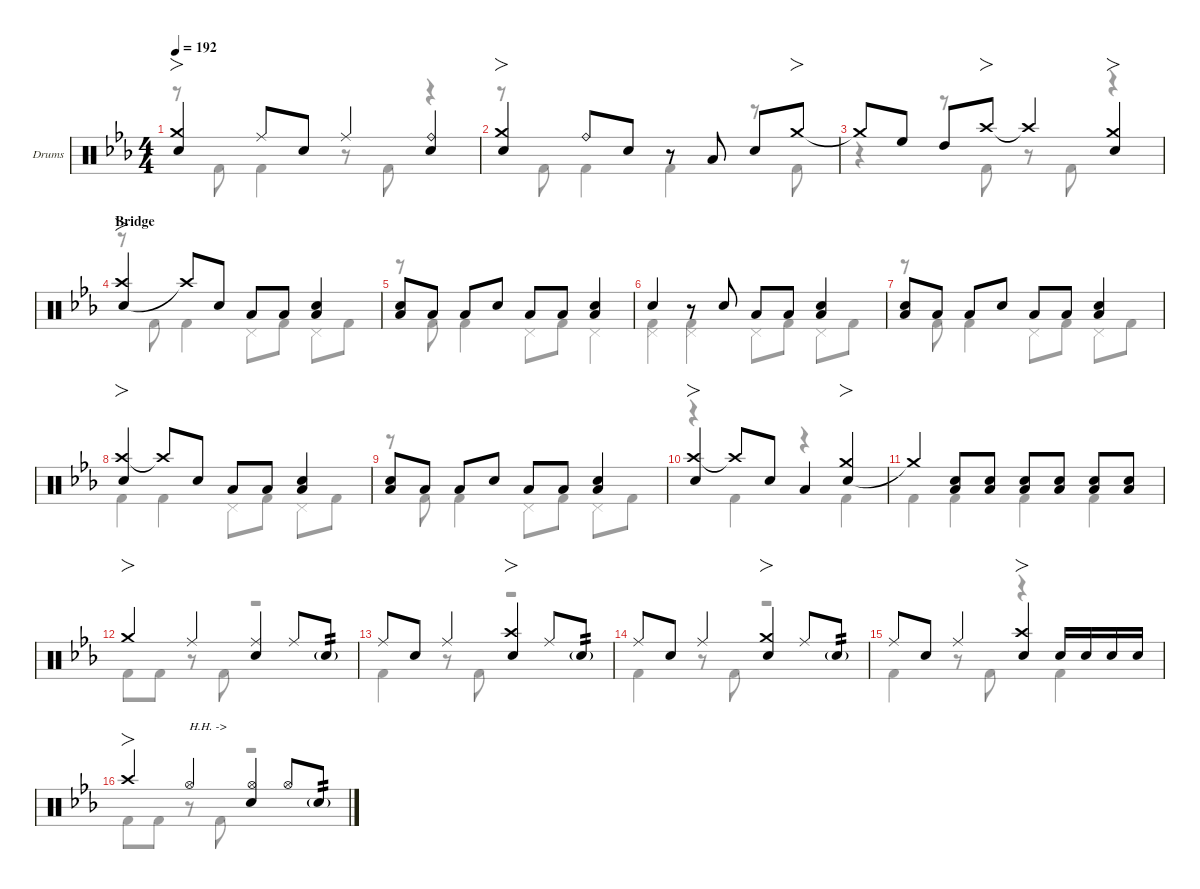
\defaultSystemsLayout 4
\hideDynamics
\bracketExtendMode nobrackets
\firstSystemTrackNameOrientation horizontal
\track ("Drums" "Drums") {defaultSystemsLayout 4 instrument percussion}
\staff {score}
\articulation defaults
\voice
\ts (4 4)
\tempo 192
\clef neutral
\scale
0.244132
\ks eb
("Crash medium (hit)"{acc forcenatural} "Snare (hit) 2"{acc forcenatural}).4{fo dy f beam Up} "Ride (middle)"{acc forcenatural}.8{dy mf beam Up} "Snare (hit) 2"{acc forcenatural}.8{dy f beam Up} "Ride (middle)"{acc forcenatural}.4{beam Up} ("Ride (bell)"{acc forcenatural} "Snare (hit) 2"{acc forcenatural}).4{beam Up} |
\scale
0.240816 ("Crash medium (hit)"{acc forcenatural} "Snare (hit) 2"{acc forcenatural}).4{fo beam Up} "Ride (bell)"{acc forcenatural}.8{beam Up} "Snare (hit) 2"{acc forcenatural}.8{beam Up} r.8{beam Up} "Low Tom (hit)"{acc forcenatural}.8{beam Up} "Snare (hit) 2"{acc forcenatural}.8{beam Up} "Crash medium (hit)"{acc forcenatural}.8{fo beam Up} |
\scale
0.247447 "Crash medium (hit)"{t acc forcenatural}.8{beam Up} "High Floor Tom (hit)"{acc forcenatural}.8{beam Up} "High Tom (hit)"{acc forcenatural}.8{beam Up} "Crash high (hit)"{acc forcenatural}.8{fo beam Up} "Crash high (hit)"{t acc forcenatural}.4{beam Up} ("Snare (hit) 2"{acc forcenatural} "Crash medium (hit)"{acc forcenatural}).4{fo beam Up} |
\section ("" "Bridge")
\scale
0.270437 ("Snare (hit) 2"{acc forcenatural} "Crash high (hit)"{acc forcenatural}).4{fo beam Up} "Crash high (hit)"{t acc forcenatural}.8{beam Up} "Snare (hit) 2"{acc forcenatural}.8{beam Up} "Low Tom (hit)"{acc forcenatural}.8{beam Up} "Low Tom (hit)"{acc forcenatural}.8{beam Up} ("Snare (hit) 2"{acc forcenatural} "Low Tom (hit)"{acc forcenatural}).4{beam Up} |
\scale
0.2413 ("Low Tom (hit)"{acc forcenatural} "Snare (hit) 2"{acc forcenatural}).8{beam Up} "Low Tom (hit)"{acc forcenatural}.8{beam Up} "Low Tom (hit)"{acc forcenatural}.8{beam Up} "Snare (hit) 2"{acc forcenatural}.8{beam Up} "Low Tom (hit)"{acc forcenatural}.8{beam Up} "Low Tom (hit)"{acc forcenatural}.8{beam Up} ("Low Tom (hit)"{acc forcenatural} "Snare (hit) 2"{acc forcenatural}).4{beam Up} |
\scale
0.240816 "Snare (hit) 2"{acc forcenatural}.4{beam Up} r.8{beam Up} "Snare (hit) 2"{acc forcenatural}.8{beam Up} "Low Tom (hit)"{acc forcenatural}.8{beam Up} "Low Tom (hit)"{acc forcenatural}.8{beam Up} ("Snare (hit) 2"{acc forcenatural} "Low Tom (hit)"{acc forcenatural}).4{beam Up} |
\scale
0.247447 ("Snare (hit) 2"{acc forcenatural} "Low Tom (hit)"{acc forcenatural}).8{beam Up} "Low Tom (hit)"{acc forcenatural}.8{beam Up} "Low Tom (hit)"{acc forcenatural}.8{beam Up} "Snare (hit) 2"{acc forcenatural}.8{beam Up} "Low Tom (hit)"{acc forcenatural}.8{beam Up} "Low Tom (hit)"{acc forcenatural}.8{beam Up} ("Low Tom (hit)"{acc forcenatural} "Snare (hit) 2"{acc forcenatural}).4{beam Up} |
\scale
0.270437 ("Crash high (hit)"{acc forcenatural} "Snare (hit) 2"{acc forcenatural}).4{fo beam Up} "Crash high (hit)"{t acc forcenatural}.8{beam Up} "Snare (hit) 2"{acc forcenatural}.8{beam Up} "Low Tom (hit)"{acc forcenatural}.8{beam Up} "Low Tom (hit)"{acc forcenatural}.8{beam Up} ("Low Tom (hit)"{acc forcenatural} "Snare (hit) 2"{acc forcenatural}).4{beam Up} |
\scale
0.2413 ("Low Tom (hit)"{acc forcenatural} "Snare (hit) 2"{acc forcenatural}).8{beam Up} "Low Tom (hit)"{acc forcenatural}.8{beam Up} "Low Tom (hit)"{acc forcenatural}.8{beam Up} "Snare (hit) 2"{acc forcenatural}.8{beam Up} "Low Tom (hit)"{acc forcenatural}.8{beam Up} "Low Tom (hit)"{acc forcenatural}.8{beam Up} ("Low Tom (hit)"{acc forcenatural} "Snare (hit) 2"{acc forcenatural}).4{beam Up} |
\scale
0.240816 ("Crash high (hit)"{acc forcenatural} "Snare (hit) 2"{acc forcenatural}).4{fo beam Up} "Crash high (hit)"{t acc forcenatural}.8{beam Up} "Snare (hit) 2"{acc forcenatural}.8{beam Up} "Low Tom (hit)"{acc forcenatural}.4{beam Up} ("Snare (hit) 2"{acc forcenatural} "Crash medium (hit)"{acc forcenatural}).4{fo beam Up} |
\scale
0.247447 "Crash medium (hit)"{t acc forcenatural}.4{beam Up} ("Snare (hit) 2"{acc forcenatural} "Low Tom (hit)"{acc forcenatural}).8{beam Up} ("Snare (hit) 2"{acc forcenatural} "Low Tom (hit)"{acc forcenatural}).8{beam Up} ("Snare (hit) 2"{acc forcenatural} "Low Tom (hit)"{acc forcenatural}).8{beam Up} ("Snare (hit) 2"{acc forcenatural} "Low Tom (hit)"{acc forcenatural}).8{beam Up} ("Snare (hit) 2"{acc forcenatural} "Low Tom (hit)"{acc forcenatural}).8{beam Up} ("Snare (hit) 2"{acc forcenatural} "Low Tom (hit)"{acc forcenatural}).8{beam Up} |
\scale
0.270437 "Crash medium (hit)"{acc forcenatural}.4{fo beam Up} "Ride (middle)"{acc forcenatural}.4{beam Up} ("Ride (middle)"{acc forcenatural} "Snare (hit) 2"{acc forcenatural}).4{beam Up} "Ride (middle)"{acc forcenatural}.8{beam Up} "Snare (hit) 2"{g acc forcenatural}.8{tp 2 dy mp beam Up} |
\scale
0.2413 "Ride (middle)"{acc forcenatural}.8{dy f beam Up} "Snare (hit) 2"{acc forcenatural}.8{beam Up} "Ride (middle)"{acc forcenatural}.4{beam Up} ("Crash high (hit)"{acc forcenatural} "Snare (hit) 2"{acc forcenatural}).4{fo beam Up} "Ride (middle)"{acc forcenatural}.8{beam Up} "Snare (hit) 2"{g acc forcenatural}.8{tp 2 dy mp beam Up} |
\scale
0.240816 "Ride (middle)"{acc forcenatural}.8{dy f beam Up} "Snare (hit) 2"{acc forcenatural}.8{beam Up} "Ride (middle)"{acc forcenatural}.4{beam Up} ("Crash medium (hit)"{acc forcenatural} "Snare (hit) 2"{acc forcenatural}).4{fo beam Up} "Ride (middle)"{acc forcenatural}.8{beam Up} "Snare (hit) 2"{g acc forcenatural}.8{tp 2 dy mp beam Up} |
\scale
0.247447 "Ride (middle)"{acc forcenatural}.8{dy f beam Up} "Snare (hit) 2"{acc forcenatural}.8{beam Up} "Ride (middle)"{acc forcenatural}.4{beam Up} ("Crash high (hit)"{acc forcenatural} "Snare (hit) 2"{acc forcenatural}).4{fo beam Up} "Snare (hit) 2"{acc forcenatural}.16{beam Up} "Snare (hit) 2"{acc forcenatural}.16{dy mf beam Up} "Snare (hit) 2"{acc forcenatural}.16{dy f beam Up} "Snare (hit) 2"{acc forcenatural}.16{dy mf beam Up} |
\scale
0.270437 "Crash high (hit)"{acc forcenatural}.4{fo dy f beam Up} "Hi-Hat (open)"{acc forcenatural}.4{txt "H.H. ->" beam Up} ("Hi-Hat (open)"{acc forcenatural} "Snare (hit) 2"{acc forcenatural}).4{beam Up} "Hi-Hat (open)"{acc forcenatural}.8{beam Up} "Snare (hit) 2"{g acc forcenatural}.8{tp 2 dy mp beam Up}
\voice
\clef neutral
\ottava regular
\simile none
\scale
0.244132
\ks eb
r.8{dy f beam Down} "Kick (hit) 2"{acc forcenatural}.8{beam Down} "Kick (hit) 2"{acc forcenatural}.4{beam Down} r.8{beam Down} "Kick (hit) 2"{acc forcenatural}.8{beam Down} r.4{beam Down} |
\scale
0.240816 r.8{beam Down} "Kick (hit) 2"{acc forcenatural}.8{beam Down} "Kick (hit) 2"{acc forcenatural}.4{beam Down} "Kick (hit) 2"{acc forcenatural}.4{beam Down} r.8{beam Down} "Kick (hit) 2"{acc forcenatural}.8{beam Down} |
\scale
0.247447 r.4{beam Down} r.8{beam Down} "Kick (hit) 2"{acc forcenatural}.8{beam Down} r.8{beam Down} "Kick (hit) 2"{acc forcenatural}.8{beam Down} r.4{beam Down} |
\scale
0.270437 r.8{beam Down} "Kick (hit) 2"{acc forcenatural}.8{beam Down} "Kick (hit) 2"{acc forcenatural}.4{beam Down} "Pedal Hi-Hat (hit)"{acc forcenatural}.8{beam Down} "Kick (hit) 2"{acc forcenatural}.8{beam Down} "Pedal Hi-Hat (hit)"{acc forcenatural}.8{beam Down} "Kick (hit) 2"{acc forcenatural}.8{beam Down} |
\scale
0.2413 r.8{beam Down} "Kick (hit) 2"{acc forcenatural}.8{beam Down} "Kick (hit) 2"{acc forcenatural}.4{beam Down} "Pedal Hi-Hat (hit)"{acc forcenatural}.8{beam Down} "Kick (hit) 2"{acc forcenatural}.8{beam Down} "Pedal Hi-Hat (hit)"{acc forcenatural}.4{beam Down} |
\scale
0.240816 ("Kick (hit) 2"{acc forcenatural} "Pedal Hi-Hat (hit)"{acc forcenatural}).4{beam Down} ("Kick (hit) 2"{acc forcenatural} "Pedal Hi-Hat (hit)"{acc forcenatural}).4{beam Down} "Pedal Hi-Hat (hit)"{acc forcenatural}.8{beam Down} "Kick (hit) 2"{acc forcenatural}.8{beam Down} "Pedal Hi-Hat (hit)"{acc forcenatural}.8{beam Down} "Kick (hit) 2"{acc forcenatural}.8{beam Down} |
\scale
0.247447 r.8{beam Down} "Kick (hit) 2"{acc forcenatural}.8{beam Down} "Kick (hit) 2"{acc forcenatural}.4{beam Down} "Pedal Hi-Hat (hit)"{acc forcenatural}.8{beam Down} "Kick (hit) 2"{acc forcenatural}.8{beam Down} "Pedal Hi-Hat (hit)"{acc forcenatural}.8{beam Down} "Kick (hit) 2"{acc forcenatural}.8{beam Down} |
\scale
0.270437 "Kick (hit) 2"{acc forcenatural}.4{beam Down} "Kick (hit) 2"{acc forcenatural}.4{beam Down} "Pedal Hi-Hat (hit)"{acc forcenatural}.8{beam Down} "Kick (hit) 2"{acc forcenatural}.8{beam Down} "Pedal Hi-Hat (hit)"{acc forcenatural}.8{beam Down} "Kick (hit) 2"{acc forcenatural}.8{beam Down} |
\scale
0.2413 r.8{beam Down} "Kick (hit) 2"{acc forcenatural}.8{beam Down} "Kick (hit) 2"{acc forcenatural}.4{beam Down} "Pedal Hi-Hat (hit)"{acc forcenatural}.8{beam Down} "Kick (hit) 2"{acc forcenatural}.8{beam Down} "Pedal Hi-Hat (hit)"{acc forcenatural}.8{beam Down} "Kick (hit) 2"{acc forcenatural}.8{beam Down} |
\scale
0.240816 r.4{beam Down} "Kick (hit) 2"{acc forcenatural}.4{beam Down} r.4{beam Down} "Kick (hit) 2"{acc forcenatural}.4{beam Down} |
\scale
0.247447 "Kick (hit) 2"{acc forcenatural}.4{beam Down} "Kick (hit) 2"{acc forcenatural}.4{beam Down} "Kick (hit) 2"{acc forcenatural}.4{beam Down} "Kick (hit) 2"{acc forcenatural}.4{beam Down} |
\scale
0.270437 "Kick (hit) 2"{acc forcenatural}.8{beam Down} "Kick (hit) 2"{acc forcenatural}.8{beam Down} r.8{beam Down} "Kick (hit) 2"{acc forcenatural}.8{beam Down} r.2{beam Down} |
\scale
0.2413 "Kick (hit) 2"{acc forcenatural}.4{beam Down} r.8{beam Down} "Kick (hit) 2"{acc forcenatural}.8{beam Down} r.2{beam Down} |
\scale
0.240816 "Kick (hit) 2"{acc forcenatural}.4{beam Down} r.8{beam Down} "Kick (hit) 2"{acc forcenatural}.8{beam Down} r.2{beam Down} |
\scale
0.247447 "Kick (hit) 2"{acc forcenatural}.4{beam Down} r.8{beam Down} "Kick (hit) 2"{acc forcenatural}.8{beam Down} r.4{beam Down} "Kick (hit) 2"{acc forcenatural}.4{beam Down} |
\scale
0.270437 "Kick (hit) 2"{acc forcenatural}.8{beam Down} "Kick (hit) 2"{acc forcenatural}.8{beam Down} r.8{txt "H.H. ->" beam Down} "Kick (hit) 2"{acc forcenatural}.8{beam Down} r.2{beam Down}
